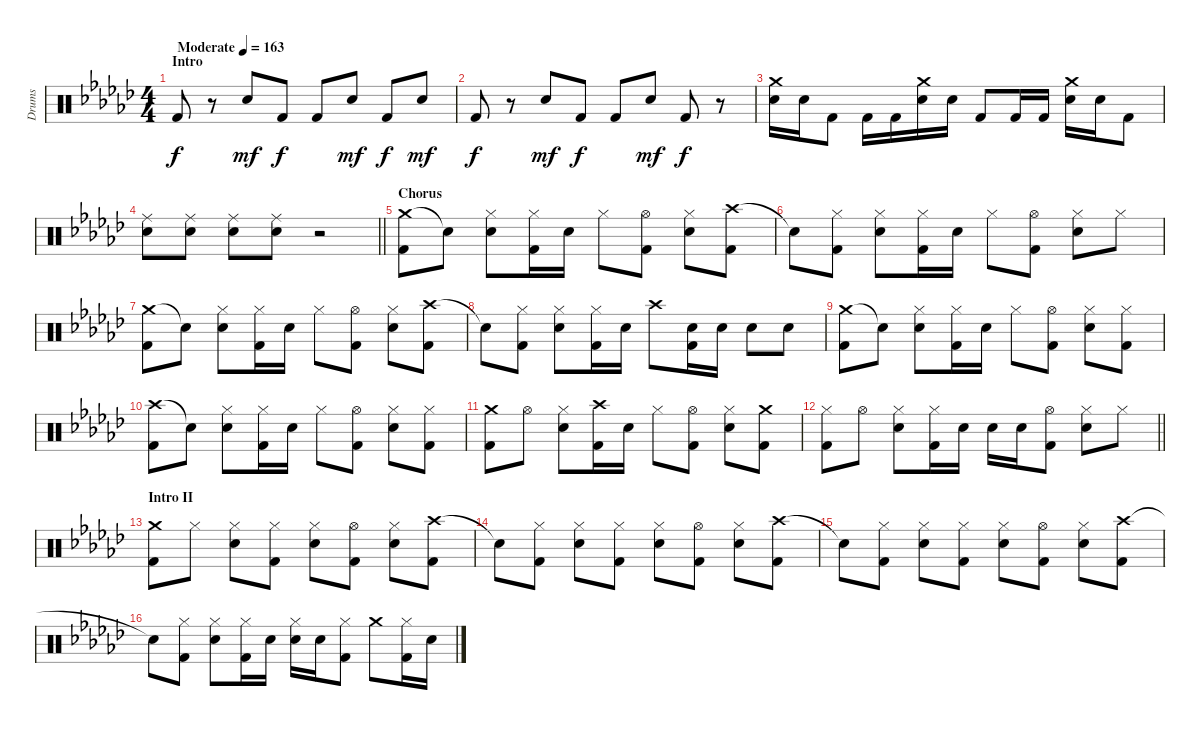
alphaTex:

\track ("Drums" "Drums") {mute instrument percussion}
\staff {score}
\articulation defaults
\ts (4 4)
\section ("" "Intro")
\tempo (163 "Moderate")
\clef neutral
\ks gb "Kick (hit) 2".8{dy f}
r.8 "Hand Clap (hit)".8{dy mf} "Kick (hit) 2".8{dy f} "Kick (hit) 2".8 "Hand Clap (hit)".8{dy mf} "Kick (hit) 2".8{dy f} "Hand Clap (hit)".8{dy mf} |
"Kick (hit) 2".8{dy f} r.8 "Hand Clap (hit)".8{dy mf} "Kick (hit) 2".8{dy f} "Kick (hit) 2".8 "Hand Clap (hit)".8{dy mf} "Kick (hit) 2".8{dy f} r.8 |
("Crash medium (hit)" "Snare (hit) 2").16 "Snare (hit) 2".16 "Kick (hit) 2".8 "Kick (hit) 2".16 "Kick (hit) 2".16 ("Crash medium (hit)" "Snare (hit) 2").16 "Snare (hit) 2".16 "Kick (hit) 2".8 "Kick (hit) 2".16 "Kick (hit) 2".16 ("Crash medium (hit)" "Snare (hit) 2").16 "Snare (hit) 2".16 "Kick (hit) 2".8 |
\barLineRight lightlight
("Ride (middle)" "Snare (hit) 2").8 ("Ride (middle)" "Snare (hit) 2").8 ("Ride (middle)" "Snare (hit) 2").8 ("Ride (middle)" "Snare (hit) 2").8 r.2 |
\section ("" "Chorus")
("Crash medium (hit)" "Kick (hit) 2").8 "Snare (hit)"{t}.8 ("Hi-Hat (closed)" "Snare (hit) 2").8 ("Hi-Hat (closed)" "Kick (hit) 2").16 "Snare (hit) 2".16 "Hi-Hat (closed)".8 ("Hi-Hat (open)" "Kick (hit) 2").8 ("Hi-Hat (closed)" "Snare (hit) 2").8 ("Crash high (hit)" "Kick (hit) 2").8 |
"Snare (hit)"{t}.8 ("Hi-Hat (closed)" "Kick (hit) 2").8 ("Hi-Hat (closed)" "Snare (hit) 2").8 ("Hi-Hat (closed)" "Kick (hit) 2").16 "Snare (hit) 2".16 "Hi-Hat (closed)".8 ("Hi-Hat (open)" "Kick (hit) 2").8 ("Hi-Hat (closed)" "Snare (hit) 2").8 "Hi-Hat (closed)".8 |
("Crash medium (hit)" "Kick (hit) 2").8 "Snare (hit)"{t}.8 ("Hi-Hat (closed)" "Snare (hit) 2").8 ("Hi-Hat (closed)" "Kick (hit) 2").16 "Snare (hit) 2".16 "Hi-Hat (closed)".8 ("Hi-Hat (open)" "Kick (hit) 2").8 ("Hi-Hat (closed)" "Snare (hit) 2").8 ("Crash high (hit)" "Kick (hit) 2").8 |
"Snare (hit)"{t}.8 ("Hi-Hat (closed)" "Kick (hit) 2").8 ("Hi-Hat (closed)" "Snare (hit) 2").8 ("Hi-Hat (closed)" "Kick (hit) 2").16 "Snare (hit) 2".16 "Crash high (hit)".8 ("Snare (hit) 2" "Kick (hit) 2").16 "Snare (hit) 2".16 "Snare (hit) 2".8 "Snare (hit) 2".8 |
("Crash medium (hit)" "Kick (hit) 2").8 "Snare (hit)"{t}.8 ("Hi-Hat (closed)" "Snare (hit) 2").8 ("Hi-Hat (closed)" "Kick (hit) 2").16 "Snare (hit) 2".16 "Hi-Hat (closed)".8 ("Hi-Hat (open)" "Kick (hit) 2").8 ("Hi-Hat (closed)" "Snare (hit) 2").8 ("Hi-Hat (closed)" "Kick (hit) 2").8 |
("Crash high (hit)" "Kick (hit) 2").8 "Snare (hit)"{t}.8 ("Hi-Hat (closed)" "Snare (hit) 2").8 ("Hi-Hat (closed)" "Kick (hit) 2").16 "Snare (hit) 2".16 "Hi-Hat (closed)".8 ("Hi-Hat (open)" "Kick (hit) 2").8 ("Hi-Hat (closed)" "Snare (hit) 2").8 ("Hi-Hat (closed)" "Kick (hit) 2").8 |
("Crash medium (hit)" "Kick (hit) 2").8 "Hi-Hat (open)".8 ("Hi-Hat (closed)" "Snare (hit) 2").8 ("Crash high (hit)" "Kick (hit) 2").16 "Snare (hit) 2".16 "Hi-Hat (closed)".8 ("Hi-Hat (open)" "Kick (hit) 2").8 ("Hi-Hat (closed)" "Snare (hit) 2").8 ("Crash medium (hit)" "Kick (hit) 2").8 |
\barLineRight lightlight
("Hi-Hat (closed)" "Kick (hit) 2").8 "Hi-Hat (open)".8 ("Hi-Hat (closed)" "Snare (hit) 2").8 ("Hi-Hat (closed)" "Kick (hit) 2").16 "Snare (hit) 2".16 "Snare (hit) 2".16 "Snare (hit) 2".16 ("Hi-Hat (open)" "Kick (hit) 2").8 ("Hi-Hat (closed)" "Snare (hit) 2").8 "Hi-Hat (closed)".8 |
\section ("" "Intro II")
("Crash medium (hit)" "Kick (hit) 2").8 "Hi-Hat (closed)".8 ("Hi-Hat (closed)" "Snare (hit) 2").8 ("Hi-Hat (closed)" "Kick (hit) 2").8 ("Hi-Hat (closed)" "Snare (hit) 2").8 ("Hi-Hat (open)" "Kick (hit) 2").8 ("Hi-Hat (closed)" "Snare (hit) 2").8 ("Crash high (hit)" "Kick (hit) 2").8 |
"Snare (hit)"{t}.8 ("Hi-Hat (closed)" "Kick (hit) 2").8 ("Hi-Hat (closed)" "Snare (hit) 2").8 ("Hi-Hat (closed)" "Kick (hit) 2").8 ("Hi-Hat (closed)" "Snare (hit) 2").8 ("Hi-Hat (open)" "Kick (hit) 2").8 ("Hi-Hat (closed)" "Snare (hit) 2").8 ("Crash high (hit)" "Kick (hit) 2").8 |
"Snare (hit)"{t}.8 ("Hi-Hat (closed)" "Kick (hit) 2").8 ("Hi-Hat (closed)" "Snare (hit) 2").8 ("Hi-Hat (closed)" "Kick (hit) 2").8 ("Hi-Hat (closed)" "Snare (hit) 2").8 ("Hi-Hat (open)" "Kick (hit) 2").8 ("Hi-Hat (closed)" "Snare (hit) 2").8 ("Crash high (hit)" "Kick (hit) 2").8 |
"Snare (hit)"{t}.8 ("Hi-Hat (closed)" "Kick (hit) 2").8 ("Hi-Hat (closed)" "Snare (hit) 2").8 ("Hi-Hat (closed)" "Kick (hit) 2").16 "Snare (hit) 2".16 ("Hi-Hat (closed)" "Snare (hit) 2").16 "Snare (hit) 2".16 ("Hi-Hat (closed)" "Kick (hit) 2").8 "Crash medium (hit)".8 ("Hi-Hat (closed)" "Kick (hit) 2").16 "Snare (hit) 2".16
